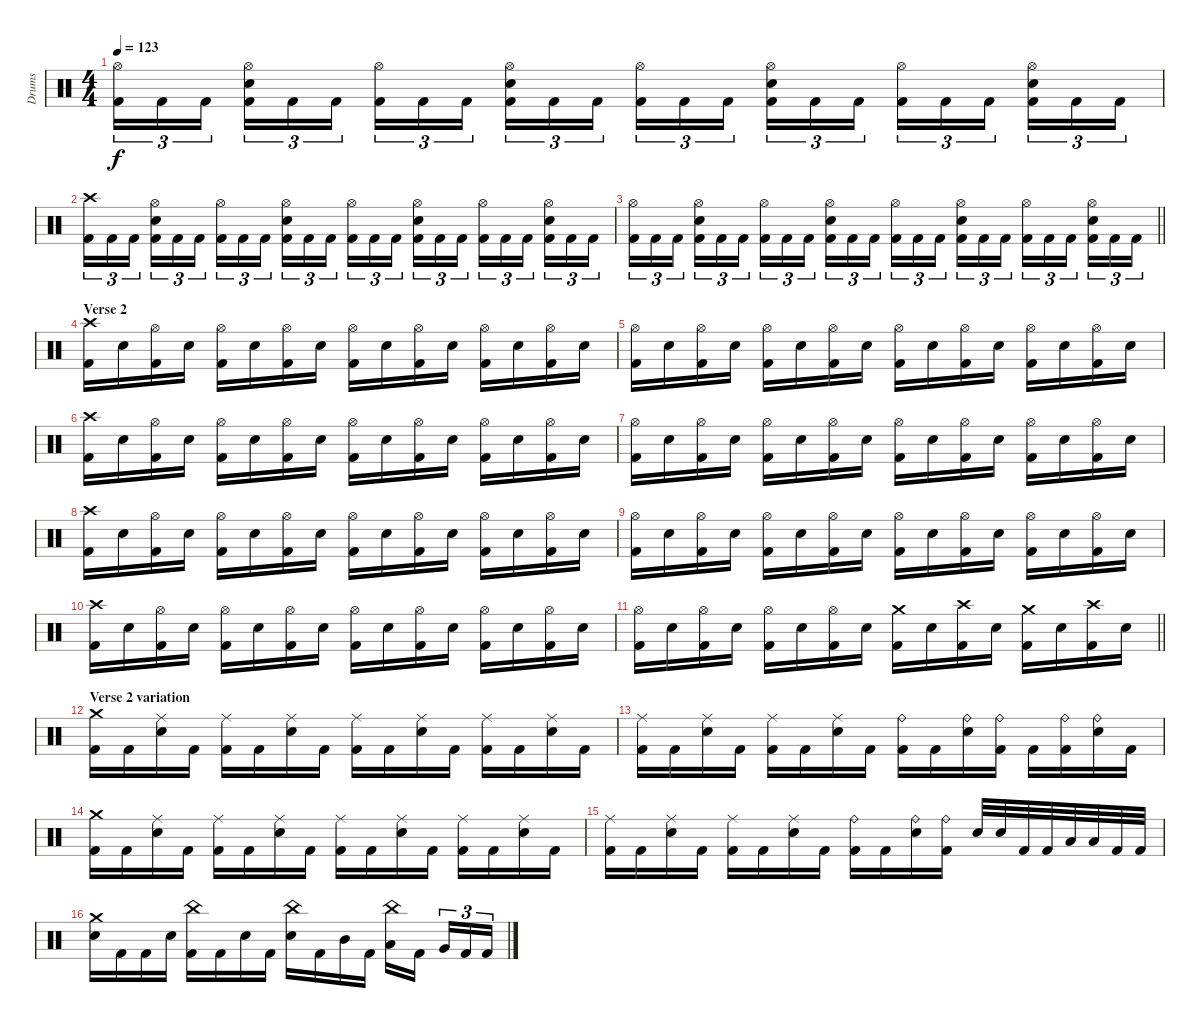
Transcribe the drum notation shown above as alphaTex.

\track ("Drums" "Drums") {instrument percussion}
\staff {score}
\articulation defaults
\ts (4 4)
\tempo 123
\clef neutral
\ks c
("Hi-Hat (open)" "Kick (hit) 2").16{tu (3 2) dy f} "Kick (hit) 2".16{tu (3 2)} "Kick (hit) 2".16{tu (3 2) beam splitsecondary} ("Hi-Hat (open)" "Snare (hit) 2" "Kick (hit) 2").16{tu (3 2)} "Kick (hit) 2".16{tu (3 2)} "Kick (hit) 2".16{tu (3 2)} ("Hi-Hat (open)" "Kick (hit) 2").16{tu (3 2)} "Kick (hit) 2".16{tu (3 2)} "Kick (hit) 2".16{tu (3 2) beam splitsecondary} ("Hi-Hat (open)" "Snare (hit) 2" "Kick (hit) 2").16{tu (3 2)} "Kick (hit) 2".16{tu (3 2)} "Kick (hit) 2".16{tu (3 2)} ("Hi-Hat (open)" "Kick (hit) 2").16{tu (3 2)} "Kick (hit) 2".16{tu (3 2)} "Kick (hit) 2".16{tu (3 2) beam splitsecondary} ("Hi-Hat (open)" "Snare (hit) 2" "Kick (hit) 2").16{tu (3 2)} "Kick (hit) 2".16{tu (3 2)} "Kick (hit) 2".16{tu (3 2)} ("Hi-Hat (open)" "Kick (hit) 2").16{tu (3 2)} "Kick (hit) 2".16{tu (3 2)} "Kick (hit) 2".16{tu (3 2) beam splitsecondary} ("Hi-Hat (open)" "Snare (hit) 2" "Kick (hit) 2").16{tu (3 2)} "Kick (hit) 2".16{tu (3 2)} "Kick (hit) 2".16{tu (3 2)} |
("Crash high (hit)" "Kick (hit) 2").16{tu (3 2)} "Kick (hit) 2".16{tu (3 2)} "Kick (hit) 2".16{tu (3 2) beam splitsecondary} ("Hi-Hat (open)" "Snare (hit) 2" "Kick (hit) 2").16{tu (3 2)} "Kick (hit) 2".16{tu (3 2)} "Kick (hit) 2".16{tu (3 2)} ("Hi-Hat (open)" "Kick (hit) 2").16{tu (3 2)} "Kick (hit) 2".16{tu (3 2)} "Kick (hit) 2".16{tu (3 2) beam splitsecondary} ("Hi-Hat (open)" "Snare (hit) 2" "Kick (hit) 2").16{tu (3 2)} "Kick (hit) 2".16{tu (3 2)} "Kick (hit) 2".16{tu (3 2)} ("Hi-Hat (open)" "Kick (hit) 2").16{tu (3 2)} "Kick (hit) 2".16{tu (3 2)} "Kick (hit) 2".16{tu (3 2) beam splitsecondary} ("Hi-Hat (open)" "Snare (hit) 2" "Kick (hit) 2").16{tu (3 2)} "Kick (hit) 2".16{tu (3 2)} "Kick (hit) 2".16{tu (3 2)} ("Hi-Hat (open)" "Kick (hit) 2").16{tu (3 2)} "Kick (hit) 2".16{tu (3 2)} "Kick (hit) 2".16{tu (3 2) beam splitsecondary} ("Hi-Hat (open)" "Snare (hit) 2" "Kick (hit) 2").16{tu (3 2)} "Kick (hit) 2".16{tu (3 2)} "Kick (hit) 2".16{tu (3 2)} |
\barLineRight lightlight
("Hi-Hat (open)" "Kick (hit) 2").16{tu (3 2)} "Kick (hit) 2".16{tu (3 2)} "Kick (hit) 2".16{tu (3 2) beam splitsecondary} ("Hi-Hat (open)" "Snare (hit) 2" "Kick (hit) 2").16{tu (3 2)} "Kick (hit) 2".16{tu (3 2)} "Kick (hit) 2".16{tu (3 2)} ("Hi-Hat (open)" "Kick (hit) 2").16{tu (3 2)} "Kick (hit) 2".16{tu (3 2)} "Kick (hit) 2".16{tu (3 2) beam splitsecondary} ("Hi-Hat (open)" "Snare (hit) 2" "Kick (hit) 2").16{tu (3 2)} "Kick (hit) 2".16{tu (3 2)} "Kick (hit) 2".16{tu (3 2)} ("Hi-Hat (open)" "Kick (hit) 2").16{tu (3 2)} "Kick (hit) 2".16{tu (3 2)} "Kick (hit) 2".16{tu (3 2) beam splitsecondary} ("Hi-Hat (open)" "Snare (hit) 2" "Kick (hit) 2").16{tu (3 2)} "Kick (hit) 2".16{tu (3 2)} "Kick (hit) 2".16{tu (3 2)} ("Hi-Hat (open)" "Kick (hit) 2").16{tu (3 2)} "Kick (hit) 2".16{tu (3 2)} "Kick (hit) 2".16{tu (3 2) beam splitsecondary} ("Hi-Hat (open)" "Snare (hit) 2" "Kick (hit) 2").16{tu (3 2)} "Kick (hit) 2".16{tu (3 2)} "Kick (hit) 2".16{tu (3 2)} |
\section ("" "Verse 2")
("Crash high (hit)" "Kick (hit) 2").16 "Snare (hit) 2".16 ("Hi-Hat (open)" "Kick (hit) 2").16 "Snare (hit) 2".16 ("Hi-Hat (open)" "Kick (hit) 2").16 "Snare (hit) 2".16 ("Hi-Hat (open)" "Kick (hit) 2").16 "Snare (hit) 2".16 ("Hi-Hat (open)" "Kick (hit) 2").16 "Snare (hit) 2".16 ("Hi-Hat (open)" "Kick (hit) 2").16 "Snare (hit) 2".16 ("Hi-Hat (open)" "Kick (hit) 2").16 "Snare (hit) 2".16 ("Hi-Hat (open)" "Kick (hit) 2").16 "Snare (hit) 2".16 |
("Hi-Hat (open)" "Kick (hit) 2").16 "Snare (hit) 2".16 ("Hi-Hat (open)" "Kick (hit) 2").16 "Snare (hit) 2".16 ("Hi-Hat (open)" "Kick (hit) 2").16 "Snare (hit) 2".16 ("Hi-Hat (open)" "Kick (hit) 2").16 "Snare (hit) 2".16 ("Hi-Hat (open)" "Kick (hit) 2").16 "Snare (hit) 2".16 ("Hi-Hat (open)" "Kick (hit) 2").16 "Snare (hit) 2".16 ("Hi-Hat (open)" "Kick (hit) 2").16 "Snare (hit) 2".16 ("Hi-Hat (open)" "Kick (hit) 2").16 "Snare (hit) 2".16 |
("Crash high (hit)" "Kick (hit) 2").16 "Snare (hit) 2".16 ("Hi-Hat (open)" "Kick (hit) 2").16 "Snare (hit) 2".16 ("Hi-Hat (open)" "Kick (hit) 2").16 "Snare (hit) 2".16 ("Hi-Hat (open)" "Kick (hit) 2").16 "Snare (hit) 2".16 ("Hi-Hat (open)" "Kick (hit) 2").16 "Snare (hit) 2".16 ("Hi-Hat (open)" "Kick (hit) 2").16 "Snare (hit) 2".16 ("Hi-Hat (open)" "Kick (hit) 2").16 "Snare (hit) 2".16 ("Hi-Hat (open)" "Kick (hit) 2").16 "Snare (hit) 2".16 |
("Hi-Hat (open)" "Kick (hit) 2").16 "Snare (hit) 2".16 ("Hi-Hat (open)" "Kick (hit) 2").16 "Snare (hit) 2".16 ("Hi-Hat (open)" "Kick (hit) 2").16 "Snare (hit) 2".16 ("Hi-Hat (open)" "Kick (hit) 2").16 "Snare (hit) 2".16 ("Hi-Hat (open)" "Kick (hit) 2").16 "Snare (hit) 2".16 ("Hi-Hat (open)" "Kick (hit) 2").16 "Snare (hit) 2".16 ("Hi-Hat (open)" "Kick (hit) 2").16 "Snare (hit) 2".16 ("Hi-Hat (open)" "Kick (hit) 2").16 "Snare (hit) 2".16 |
("Crash high (hit)" "Kick (hit) 2").16 "Snare (hit) 2".16 ("Hi-Hat (open)" "Kick (hit) 2").16 "Snare (hit) 2".16 ("Hi-Hat (open)" "Kick (hit) 2").16 "Snare (hit) 2".16 ("Hi-Hat (open)" "Kick (hit) 2").16 "Snare (hit) 2".16 ("Hi-Hat (open)" "Kick (hit) 2").16 "Snare (hit) 2".16 ("Hi-Hat (open)" "Kick (hit) 2").16 "Snare (hit) 2".16 ("Hi-Hat (open)" "Kick (hit) 2").16 "Snare (hit) 2".16 ("Hi-Hat (open)" "Kick (hit) 2").16 "Snare (hit) 2".16 |
("Hi-Hat (open)" "Kick (hit) 2").16 "Snare (hit) 2".16 ("Hi-Hat (open)" "Kick (hit) 2").16 "Snare (hit) 2".16 ("Hi-Hat (open)" "Kick (hit) 2").16 "Snare (hit) 2".16 ("Hi-Hat (open)" "Kick (hit) 2").16 "Snare (hit) 2".16 ("Hi-Hat (open)" "Kick (hit) 2").16 "Snare (hit) 2".16 ("Hi-Hat (open)" "Kick (hit) 2").16 "Snare (hit) 2".16 ("Hi-Hat (open)" "Kick (hit) 2").16 "Snare (hit) 2".16 ("Hi-Hat (open)" "Kick (hit) 2").16 "Snare (hit) 2".16 |
("Crash high (hit)" "Kick (hit) 2").16 "Snare (hit) 2".16 ("Hi-Hat (open)" "Kick (hit) 2").16 "Snare (hit) 2".16 ("Hi-Hat (open)" "Kick (hit) 2").16 "Snare (hit) 2".16 ("Hi-Hat (open)" "Kick (hit) 2").16 "Snare (hit) 2".16 ("Hi-Hat (open)" "Kick (hit) 2").16 "Snare (hit) 2".16 ("Hi-Hat (open)" "Kick (hit) 2").16 "Snare (hit) 2".16 ("Hi-Hat (open)" "Kick (hit) 2").16 "Snare (hit) 2".16 ("Hi-Hat (open)" "Kick (hit) 2").16 "Snare (hit) 2".16 |
\barLineRight lightlight
("Hi-Hat (open)" "Kick (hit) 2").16 "Snare (hit) 2".16 ("Hi-Hat (open)" "Kick (hit) 2").16 "Snare (hit) 2".16 ("Hi-Hat (open)" "Kick (hit) 2").16 "Snare (hit) 2".16 ("Hi-Hat (open)" "Kick (hit) 2").16 "Snare (hit) 2".16 ("Crash medium (hit)" "Kick (hit) 2").16 "Snare (hit) 2".16 ("Crash high (hit)" "Kick (hit) 2").16 "Snare (hit) 2".16 ("Crash medium (hit)" "Kick (hit) 2").16 "Snare (hit) 2".16 ("Crash high (hit)" "Kick (hit) 2").16 "Snare (hit) 2".16 |
\section ("" "Verse 2 variation")
("Crash medium (hit)" "Kick (hit) 2").16 "Kick (hit) 2".16 ("Ride (middle)" "Snare (hit) 2").16 "Kick (hit) 2".16 ("Ride (middle)" "Kick (hit) 2").16 "Kick (hit) 2".16 ("Ride (middle)" "Snare (hit) 2").16 "Kick (hit) 2".16 ("Ride (middle)" "Kick (hit) 2").16 "Kick (hit) 2".16 ("Ride (middle)" "Snare (hit) 2").16 "Kick (hit) 2".16 ("Ride (middle)" "Kick (hit) 2").16 "Kick (hit) 2".16 ("Ride (middle)" "Snare (hit) 2").16 "Kick (hit) 2".16 |
("Ride (middle)" "Kick (hit) 2").16 "Kick (hit) 2".16 ("Ride (middle)" "Snare (hit) 2").16 "Kick (hit) 2".16 ("Ride (middle)" "Kick (hit) 2").16 "Kick (hit) 2".16 ("Ride (middle)" "Snare (hit) 2").16 "Kick (hit) 2".16 ("Ride (bell)" "Kick (hit) 2").16 "Kick (hit) 2".16 ("Ride (bell)" "Snare (hit) 2").16 ("Ride (bell)" "Kick (hit) 2").16 "Kick (hit) 2".16 ("Ride (bell)" "Kick (hit) 2").16 ("Ride (bell)" "Snare (hit) 2").16 "Kick (hit) 2".16 |
("Crash medium (hit)" "Kick (hit) 2").16 "Kick (hit) 2".16 ("Ride (middle)" "Snare (hit) 2").16 "Kick (hit) 2".16 ("Ride (middle)" "Kick (hit) 2").16 "Kick (hit) 2".16 ("Ride (middle)" "Snare (hit) 2").16 "Kick (hit) 2".16 ("Ride (middle)" "Kick (hit) 2").16 "Kick (hit) 2".16 ("Ride (middle)" "Snare (hit) 2").16 "Kick (hit) 2".16 ("Ride (middle)" "Kick (hit) 2").16 "Kick (hit) 2".16 ("Ride (middle)" "Snare (hit) 2").16 "Kick (hit) 2".16 |
("Ride (middle)" "Kick (hit) 2").16 "Kick (hit) 2".16 ("Ride (middle)" "Snare (hit) 2").16 "Kick (hit) 2".16 ("Ride (middle)" "Kick (hit) 2").16 "Kick (hit) 2".16 ("Ride (middle)" "Snare (hit) 2").16 "Kick (hit) 2".16 ("Ride (bell)" "Kick (hit) 2").16 "Kick (hit) 2".16 ("Ride (bell)" "Snare (hit) 2").16 ("Ride (bell)" "Kick (hit) 2").16 "Snare (hit) 2".32 "Snare (hit) 2".32 "Kick (hit) 2".32 "Kick (hit) 2".32 "Low Tom (hit)".32 "Low Tom (hit)".32 "Kick (hit) 2".32 "Kick (hit) 2".32 |
("Crash medium (hit)" "Snare (hit) 2").16 "Kick (hit) 2".16 "Kick (hit) 2".16 "Snare (hit) 2".16 ("China (hit)" "Kick (hit) 2").16 "Kick (hit) 2".16 "Snare (hit) 2".16 "Kick (hit) 2".16 ("China (hit)" "Snare (hit) 2").16 "Kick (hit) 2".16 "Mid Tom (hit)".16 "Kick (hit) 2".16 ("China (hit)" "Low Tom (hit)").16 "Kick (hit) 2".16{beam splitsecondary} "Very Low Tom (hit)".16{tu (3 2)} "Kick (hit) 2".16{tu (3 2)} "Kick (hit) 2".16{tu (3 2)}
